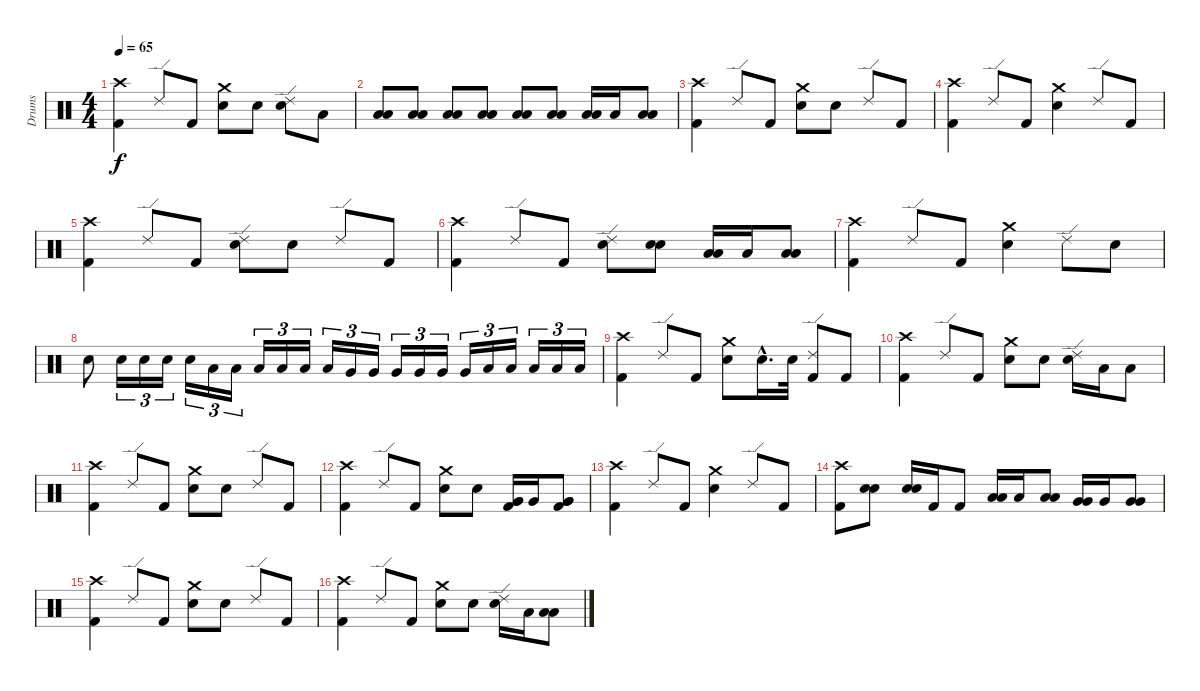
\track ("Drums" "Drums") {instrument percussion}
\staff {score}
\articulation defaults
\ts (4 4)
\tempo 65
\clef neutral
\ks c
("Crash high (hit)" "Kick (hit) 2").4{dy f} "Ride (edge) 2".8 "Kick (hit) 2".8 ("Crash medium (hit)" "Electric Snare (hit)").8 "Electric Snare (hit)".8 ("Ride (edge) 2" "Electric Snare (hit)").8 "Low Tom (hit)".8 |
("Low Tom (hit)" "Low Tom (hit)").8{bu 60} ("Low Tom (hit)" "Low Tom (hit)").8{bu 60} ("Low Tom (hit)" "Low Tom (hit)").8{bu 60} ("Low Tom (hit)" "Low Tom (hit)").8{bu 60} ("Low Tom (hit)" "Low Tom (hit)").8{bu 60} ("Low Tom (hit)" "Low Tom (hit)").8{bu 60} ("Low Tom (hit)" "Low Tom (hit)").16{bu 60} "Low Tom (hit)".16 ("Low Tom (hit)" "Low Tom (hit)").8{bu 60} |
("Crash high (hit)" "Kick (hit) 2").4 "Ride (edge) 2".8 "Kick (hit) 2".8 ("Crash medium (hit)" "Electric Snare (hit)").8 "Electric Snare (hit)".8 "Ride (edge) 2".8 "Kick (hit) 2".8 |
("Crash high (hit)" "Kick (hit) 2").4 "Ride (edge) 2".8 "Kick (hit) 2".8 ("Crash medium (hit)" "Electric Snare (hit)").4 "Ride (edge) 2".8 "Kick (hit) 2".8 |
("Crash high (hit)" "Kick (hit) 2").4 "Ride (edge) 2".8 "Kick (hit) 2".8 ("Ride (edge) 2" "Electric Snare (hit)").8 "Electric Snare (hit)".8 "Ride (edge) 2".8 "Kick (hit) 2".8 |
("Crash high (hit)" "Kick (hit) 2").4 "Ride (edge) 2".8 "Kick (hit) 2".8 ("Ride (edge) 2" "Electric Snare (hit)").8 ("Electric Snare (hit)" "Electric Snare (hit)").8{bu 60} ("Low Floor Tom (hit)" "Low Floor Tom (hit)").16{bu 60} "Low Floor Tom (hit)".16 ("Low Floor Tom (hit)" "Low Floor Tom (hit)").8{bu 60} |
("Crash high (hit)" "Kick (hit) 2").4 "Ride (edge) 2".8 "Kick (hit) 2".8 ("Crash medium (hit)" "Electric Snare (hit)").4 "Ride (edge) 2".8 "Electric Snare (hit)".8 |
"Electric Snare (hit)".8 "Electric Snare (hit)".16{tu (3 2)} "Electric Snare (hit)".16{tu (3 2)} "Electric Snare (hit)".16{tu (3 2)} "Electric Snare (hit)".16{tu (3 2)} "Low Tom (hit)".16{tu (3 2)} "Low Tom (hit)".16{tu (3 2)} "Low Tom (hit)".16{tu (3 2)} "Low Tom (hit)".16{tu (3 2)} "Low Tom (hit)".16{tu (3 2)} "Low Tom (hit)".16{tu (3 2)} "Very Low Tom (hit)".16{tu (3 2)} "Very Low Tom (hit)".16{tu (3 2)} "Very Low Tom (hit)".16{tu (3 2)} "Very Low Tom (hit)".16{tu (3 2)} "Very Low Tom (hit)".16{tu (3 2)} "Very Low Tom (hit)".16{tu (3 2)} "Low Floor Tom (hit)".16{tu (3 2)} "Low Floor Tom (hit)".16{tu (3 2)} "Low Floor Tom (hit)".16{tu (3 2)} "Low Floor Tom (hit)".16{tu (3 2)} "Low Floor Tom (hit)".16{tu (3 2)} |
("Crash high (hit)" "Kick (hit) 2").4 "Ride (edge) 2".8 "Kick (hit) 2".8 ("Crash medium (hit)" "Electric Snare (hit)").8 "Electric Snare (hit)"{hac}.16{d} "Electric Snare (hit)".32 ("Ride (edge) 2" "Kick (hit) 2").8 "Kick (hit) 2".8 |
("Crash high (hit)" "Kick (hit) 2").4 "Ride (edge) 2".8 "Kick (hit) 2".8 ("Crash medium (hit)" "Electric Snare (hit)").8 "Electric Snare (hit)".8 ("Ride (edge) 2" "Electric Snare (hit)").16 "Low Tom (hit)".16 "Low Tom (hit)".8 |
("Crash high (hit)" "Kick (hit) 2").4 "Ride (edge) 2".8 "Kick (hit) 2".8 ("Crash medium (hit)" "Electric Snare (hit)").8 "Electric Snare (hit)".8 "Ride (edge) 2".8 "Kick (hit) 2".8 |
("Crash high (hit)" "Kick (hit) 2").4 "Ride (edge) 2".8 "Kick (hit) 2".8 ("Crash medium (hit)" "Electric Snare (hit)").8 "Electric Snare (hit)".8 ("Very Low Tom (hit)" "Very Low Tom (hit)" "Kick (hit) 2").16{bu 60} "Very Low Tom (hit)".16 ("Very Low Tom (hit)" "Very Low Tom (hit)" "Kick (hit) 2").8{bu 60} |
("Crash high (hit)" "Kick (hit) 2").4 "Ride (edge) 2".8 "Kick (hit) 2".8 ("Crash medium (hit)" "Electric Snare (hit)").4 "Ride (edge) 2".8 "Kick (hit) 2".8 |
("Crash high (hit)" "Kick (hit) 2").8 ("Electric Snare (hit)" "Electric Snare (hit)").8{bu 60} ("Electric Snare (hit)" "Electric Snare (hit)").16{bu 60} "Kick (hit) 2".16 "Kick (hit) 2".8 ("Low Tom (hit)" "Low Tom (hit)").16{bu 60} "Low Tom (hit)".16 ("Low Tom (hit)" "Low Tom (hit)").8{bu 60} ("Very Low Tom (hit)" "Very Low Tom (hit)").16{bu 60} "Very Low Tom (hit)".16 ("Very Low Tom (hit)" "Very Low Tom (hit)").8{bu 60} |
("Crash high (hit)" "Kick (hit) 2").4 "Ride (edge) 2".8 "Kick (hit) 2".8 ("Crash medium (hit)" "Electric Snare (hit)").8 "Electric Snare (hit)".8 "Ride (edge) 2".8 "Kick (hit) 2".8 |
("Crash high (hit)" "Kick (hit) 2").4 "Ride (edge) 2".8 "Kick (hit) 2".8 ("Crash medium (hit)" "Electric Snare (hit)").8 "Electric Snare (hit)".8 ("Ride (edge) 2" "Electric Snare (hit)").16 "Low Tom (hit)".16 ("Low Tom (hit)" "Low Tom (hit)").8{bu 60}
